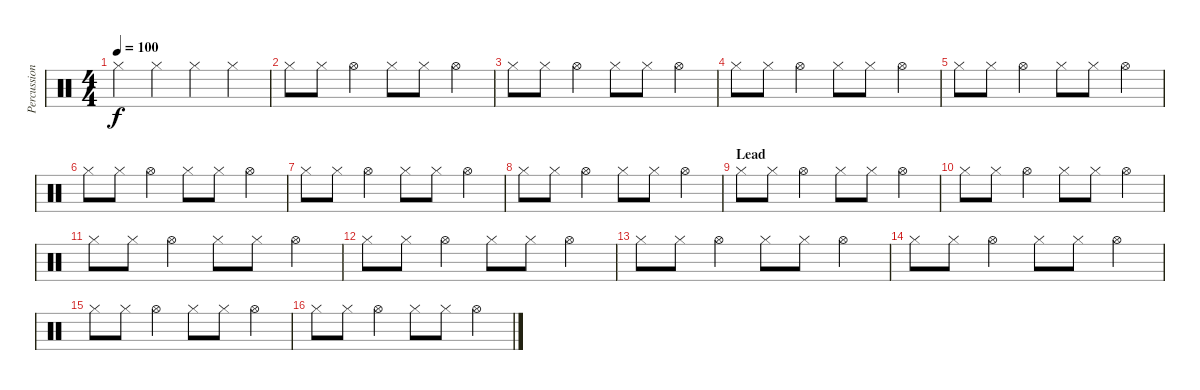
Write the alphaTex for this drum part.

\track ("Percussion" "Percussion") {instrument percussion}
\staff {score}
\articulation defaults
\ts (4 4)
\tempo 100
\clef neutral
\ks c "Hi-Hat (closed)".4{dy f} "Hi-Hat (closed)".4 "Hi-Hat (closed)".4 "Hi-Hat (closed)".4
|
"Hi-Hat (closed)".8 "Hi-Hat (closed)".8 "Hi-Hat (open)".4 "Hi-Hat (closed)".8 "Hi-Hat (closed)".8 "Hi-Hat (open)".4 |
"Hi-Hat (closed)".8 "Hi-Hat (closed)".8 "Hi-Hat (open)".4 "Hi-Hat (closed)".8 "Hi-Hat (closed)".8 "Hi-Hat (open)".4 |
"Hi-Hat (closed)".8 "Hi-Hat (closed)".8 "Hi-Hat (open)".4 "Hi-Hat (closed)".8 "Hi-Hat (closed)".8 "Hi-Hat (open)".4 |
"Hi-Hat (closed)".8 "Hi-Hat (closed)".8 "Hi-Hat (open)".4 "Hi-Hat (closed)".8 "Hi-Hat (closed)".8 "Hi-Hat (open)".4 |
"Hi-Hat (closed)".8 "Hi-Hat (closed)".8 "Hi-Hat (open)".4 "Hi-Hat (closed)".8 "Hi-Hat (closed)".8 "Hi-Hat (open)".4 |
"Hi-Hat (closed)".8 "Hi-Hat (closed)".8 "Hi-Hat (open)".4 "Hi-Hat (closed)".8 "Hi-Hat (closed)".8 "Hi-Hat (open)".4 |
"Hi-Hat (closed)".8 "Hi-Hat (closed)".8 "Hi-Hat (open)".4 "Hi-Hat (closed)".8 "Hi-Hat (closed)".8 "Hi-Hat (open)".4 |
\section ("" "Lead")
"Hi-Hat (closed)".8 "Hi-Hat (closed)".8 "Hi-Hat (open)".4 "Hi-Hat (closed)".8 "Hi-Hat (closed)".8 "Hi-Hat (open)".4 |
"Hi-Hat (closed)".8 "Hi-Hat (closed)".8 "Hi-Hat (open)".4 "Hi-Hat (closed)".8 "Hi-Hat (closed)".8 "Hi-Hat (open)".4 |
"Hi-Hat (closed)".8 "Hi-Hat (closed)".8 "Hi-Hat (open)".4 "Hi-Hat (closed)".8 "Hi-Hat (closed)".8 "Hi-Hat (open)".4 |
"Hi-Hat (closed)".8 "Hi-Hat (closed)".8 "Hi-Hat (open)".4 "Hi-Hat (closed)".8 "Hi-Hat (closed)".8 "Hi-Hat (open)".4 |
"Hi-Hat (closed)".8 "Hi-Hat (closed)".8 "Hi-Hat (open)".4 "Hi-Hat (closed)".8 "Hi-Hat (closed)".8 "Hi-Hat (open)".4 |
"Hi-Hat (closed)".8 "Hi-Hat (closed)".8 "Hi-Hat (open)".4 "Hi-Hat (closed)".8 "Hi-Hat (closed)".8 "Hi-Hat (open)".4 |
"Hi-Hat (closed)".8 "Hi-Hat (closed)".8 "Hi-Hat (open)".4 "Hi-Hat (closed)".8 "Hi-Hat (closed)".8 "Hi-Hat (open)".4 |
"Hi-Hat (closed)".8 "Hi-Hat (closed)".8 "Hi-Hat (open)".4 "Hi-Hat (closed)".8 "Hi-Hat (closed)".8 "Hi-Hat (open)".4
